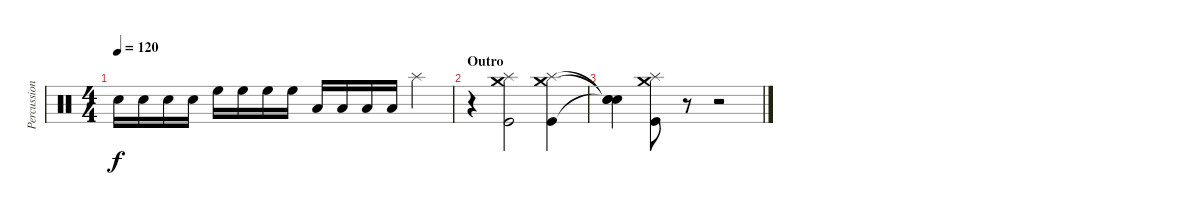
\track ("Percussion" "Percussion") {instrument percussion}
\staff {score}
\articulation defaults
\ts (4 4)
\tempo 120
\clef neutral
\ks c "Snare (hit) 2".16{dy f} "Snare (hit) 2".16 "Snare (hit) 2".16 "Snare (hit) 2".16 "High Floor Tom (hit)".16 "High Floor Tom (hit)".16 "High Floor Tom (hit)".16 "High Floor Tom (hit)".16 "Low Tom (hit)".16 "Low Tom (hit)".16 "Low Tom (hit)".16 "Low Tom (hit)".16 "Splash (hit)".4
|
\section ("" "Outro")
r.4 ("Splash (hit)" "Crash medium (hit)" "Kick (hit)").2 ("Splash (hit)" "Kick (hit)" "Crash medium (hit)").4 |
("Snare (hit)"{t} "Snare (hit)"{t} "Snare (hit)"{t}).4 ("Splash (hit)" "Kick (hit)" "Crash medium (hit)").8 r.8 r.2
